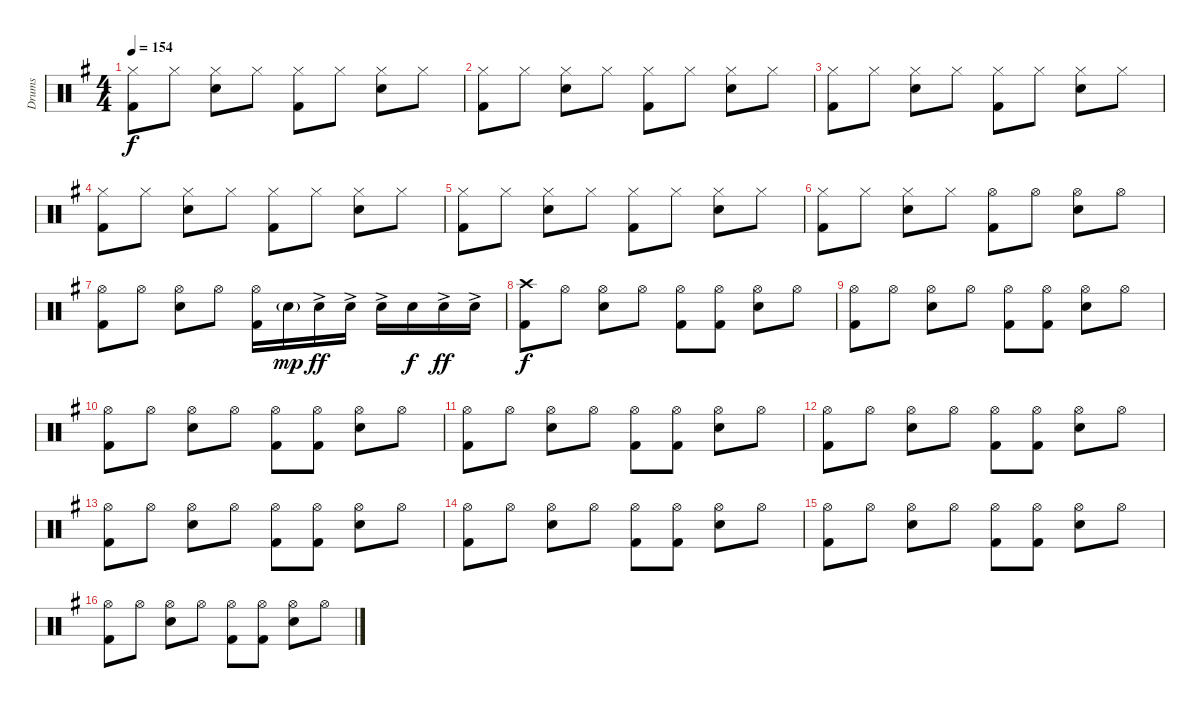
\track ("Drums" "Drums") {instrument percussion}
\staff {score}
\articulation defaults
\ts (4 4)
\tempo 154
\clef neutral
\ks g
("Hi-Hat (closed)" "Kick (hit) 2").8{dy f} "Hi-Hat (closed)".8 ("Hi-Hat (closed)" "Electric Snare (hit)").8 "Hi-Hat (closed)".8 ("Kick (hit) 2" "Hi-Hat (closed)").8 "Hi-Hat (closed)".8 ("Hi-Hat (closed)" "Electric Snare (hit)").8 "Hi-Hat (closed)".8 |
("Hi-Hat (closed)" "Kick (hit) 2").8 "Hi-Hat (closed)".8 ("Hi-Hat (closed)" "Electric Snare (hit)").8 "Hi-Hat (closed)".8 ("Kick (hit) 2" "Hi-Hat (closed)").8 "Hi-Hat (closed)".8 ("Hi-Hat (closed)" "Electric Snare (hit)").8 "Hi-Hat (closed)".8 |
("Hi-Hat (closed)" "Kick (hit) 2").8 "Hi-Hat (closed)".8 ("Hi-Hat (closed)" "Electric Snare (hit)").8 "Hi-Hat (closed)".8 ("Kick (hit) 2" "Hi-Hat (closed)").8 "Hi-Hat (closed)".8 ("Hi-Hat (closed)" "Electric Snare (hit)").8 "Hi-Hat (closed)".8 |
("Hi-Hat (closed)" "Kick (hit) 2").8 "Hi-Hat (closed)".8 ("Hi-Hat (closed)" "Electric Snare (hit)").8 "Hi-Hat (closed)".8 ("Kick (hit) 2" "Hi-Hat (closed)").8 "Hi-Hat (closed)".8 ("Hi-Hat (closed)" "Electric Snare (hit)").8 "Hi-Hat (closed)".8 |
("Hi-Hat (closed)" "Kick (hit) 2").8 "Hi-Hat (closed)".8 ("Hi-Hat (closed)" "Electric Snare (hit)").8 "Hi-Hat (closed)".8 ("Kick (hit) 2" "Hi-Hat (closed)").8 "Hi-Hat (closed)".8 ("Hi-Hat (closed)" "Electric Snare (hit)").8 "Hi-Hat (closed)".8 |
("Hi-Hat (closed)" "Kick (hit) 2").8 "Hi-Hat (closed)".8 ("Hi-Hat (closed)" "Electric Snare (hit)").8 "Hi-Hat (closed)".8 ("Kick (hit) 2" "Hi-Hat (open)").8 "Hi-Hat (open)".8 ("Hi-Hat (open)" "Electric Snare (hit)").8 "Hi-Hat (open)".8 |
("Kick (hit) 2" "Hi-Hat (open)").8 "Hi-Hat (open)".8 ("Hi-Hat (open)" "Electric Snare (hit)").8 "Hi-Hat (open)".8 ("Kick (hit) 2" "Hi-Hat (open)").16 "Electric Snare (hit)"{g}.16{dy mp} "Electric Snare (hit)"{ac}.16{dy ff} "Electric Snare (hit)"{ac}.16 "Electric Snare (hit)"{ac}.16 "Electric Snare (hit)".16{dy f} "Electric Snare (hit)"{ac}.16{dy ff} "Electric Snare (hit)"{ac}.16 |
("Crash high (hit)" "Kick (hit) 2").8{dy f} "Hi-Hat (open)".8 ("Hi-Hat (open)" "Electric Snare (hit)").8 "Hi-Hat (open)".8 ("Hi-Hat (open)" "Kick (hit) 2").8 ("Kick (hit) 2" "Hi-Hat (open)").8 ("Electric Snare (hit)" "Hi-Hat (open)").8 "Hi-Hat (open)".8 |
("Hi-Hat (open)" "Kick (hit) 2").8 "Hi-Hat (open)".8 ("Hi-Hat (open)" "Electric Snare (hit)").8 "Hi-Hat (open)".8 ("Hi-Hat (open)" "Kick (hit) 2").8 ("Kick (hit) 2" "Hi-Hat (open)").8 ("Electric Snare (hit)" "Hi-Hat (open)").8 "Hi-Hat (open)".8 |
("Hi-Hat (open)" "Kick (hit) 2").8 "Hi-Hat (open)".8 ("Hi-Hat (open)" "Electric Snare (hit)").8 "Hi-Hat (open)".8 ("Hi-Hat (open)" "Kick (hit) 2").8 ("Kick (hit) 2" "Hi-Hat (open)").8 ("Electric Snare (hit)" "Hi-Hat (open)").8 "Hi-Hat (open)".8 |
("Hi-Hat (open)" "Kick (hit) 2").8 "Hi-Hat (open)".8 ("Hi-Hat (open)" "Electric Snare (hit)").8 "Hi-Hat (open)".8 ("Hi-Hat (open)" "Kick (hit) 2").8 ("Kick (hit) 2" "Hi-Hat (open)").8 ("Electric Snare (hit)" "Hi-Hat (open)").8 "Hi-Hat (open)".8 |
("Hi-Hat (open)" "Kick (hit) 2").8 "Hi-Hat (open)".8 ("Hi-Hat (open)" "Electric Snare (hit)").8 "Hi-Hat (open)".8 ("Hi-Hat (open)" "Kick (hit) 2").8 ("Kick (hit) 2" "Hi-Hat (open)").8 ("Electric Snare (hit)" "Hi-Hat (open)").8 "Hi-Hat (open)".8 |
("Hi-Hat (open)" "Kick (hit) 2").8 "Hi-Hat (open)".8 ("Hi-Hat (open)" "Electric Snare (hit)").8 "Hi-Hat (open)".8 ("Hi-Hat (open)" "Kick (hit) 2").8 ("Kick (hit) 2" "Hi-Hat (open)").8 ("Electric Snare (hit)" "Hi-Hat (open)").8 "Hi-Hat (open)".8 |
("Hi-Hat (open)" "Kick (hit) 2").8 "Hi-Hat (open)".8 ("Hi-Hat (open)" "Electric Snare (hit)").8 "Hi-Hat (open)".8 ("Hi-Hat (open)" "Kick (hit) 2").8 ("Kick (hit) 2" "Hi-Hat (open)").8 ("Electric Snare (hit)" "Hi-Hat (open)").8 "Hi-Hat (open)".8 |
("Hi-Hat (open)" "Kick (hit) 2").8 "Hi-Hat (open)".8 ("Hi-Hat (open)" "Electric Snare (hit)").8 "Hi-Hat (open)".8 ("Hi-Hat (open)" "Kick (hit) 2").8 ("Kick (hit) 2" "Hi-Hat (open)").8 ("Electric Snare (hit)" "Hi-Hat (open)").8 "Hi-Hat (open)".8 |
("Hi-Hat (open)" "Kick (hit) 2").8 "Hi-Hat (open)".8 ("Hi-Hat (open)" "Electric Snare (hit)").8 "Hi-Hat (open)".8 ("Hi-Hat (open)" "Kick (hit) 2").8 ("Kick (hit) 2" "Hi-Hat (open)").8 ("Electric Snare (hit)" "Hi-Hat (open)").8 "Hi-Hat (open)".8
